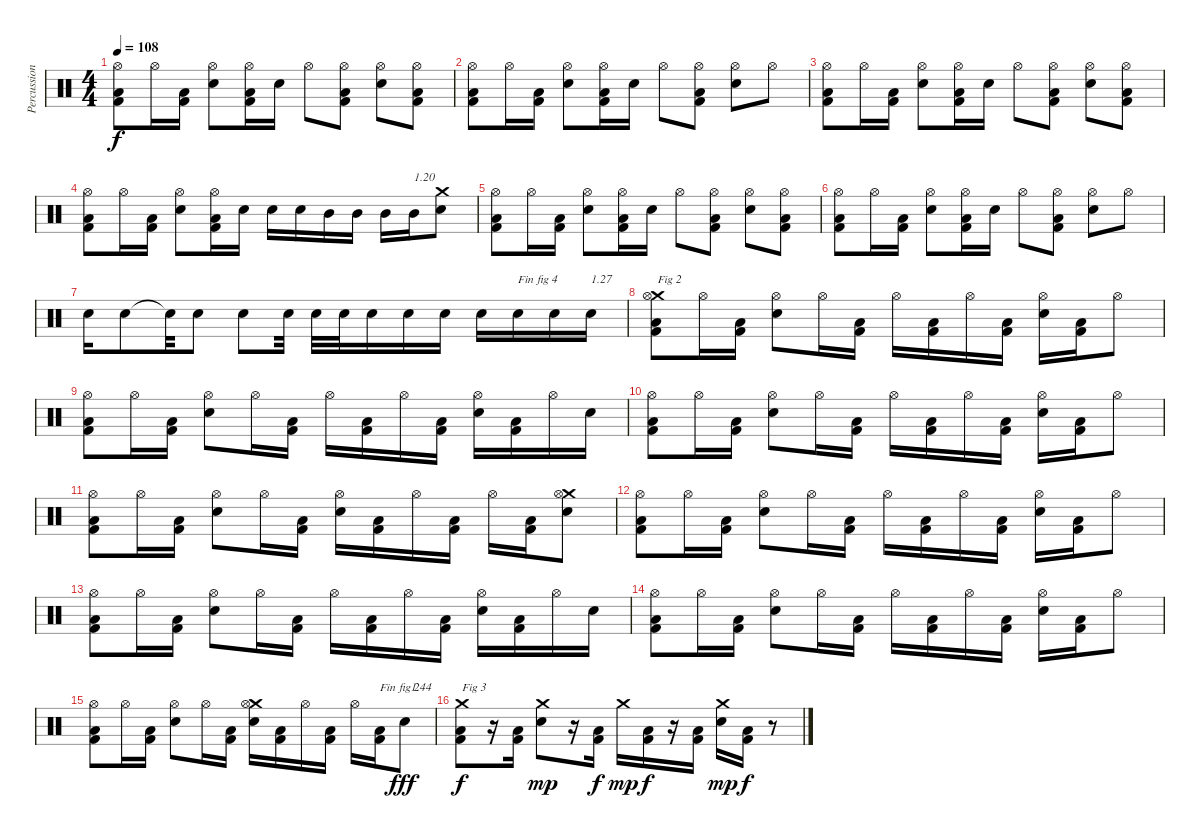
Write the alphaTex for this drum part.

\track ("Percussions" "Percussion") {instrument percussion}
\staff {score}
\articulation defaults
\ts (4 4)
\tempo 108
\clef neutral
\ks c
("Kick (hit) 2" "Low Floor Tom (hit)" "Hi-Hat (open)").8{dy f} "Hi-Hat (open)".16 ("Kick (hit) 2" "Low Floor Tom (hit)").16 ("Snare (hit) 2" "Hi-Hat (open)").8 ("Kick (hit) 2" "Low Floor Tom (hit)" "Hi-Hat (open)").16 "Snare (hit) 2".16 "Hi-Hat (open)".8 ("Kick (hit) 2" "Low Floor Tom (hit)" "Hi-Hat (open)").8 ("Snare (hit) 2" "Hi-Hat (open)").8 ("Kick (hit) 2" "Low Floor Tom (hit)" "Hi-Hat (open)").8 |
("Kick (hit) 2" "Low Floor Tom (hit)" "Hi-Hat (open)").8 "Hi-Hat (open)".16 ("Kick (hit) 2" "Low Floor Tom (hit)").16 ("Snare (hit) 2" "Hi-Hat (open)").8 ("Kick (hit) 2" "Low Floor Tom (hit)" "Hi-Hat (open)").16 "Snare (hit) 2".16 "Hi-Hat (open)".8 ("Kick (hit) 2" "Low Floor Tom (hit)" "Hi-Hat (open)").8 ("Snare (hit) 2" "Hi-Hat (open)").8 "Hi-Hat (open)".8 |
("Kick (hit) 2" "Low Floor Tom (hit)" "Hi-Hat (open)").8 "Hi-Hat (open)".16 ("Kick (hit) 2" "Low Floor Tom (hit)").16 ("Snare (hit) 2" "Hi-Hat (open)").8 ("Kick (hit) 2" "Low Floor Tom (hit)" "Hi-Hat (open)").16 "Snare (hit) 2".16 "Hi-Hat (open)".8 ("Kick (hit) 2" "Low Floor Tom (hit)" "Hi-Hat (open)").8 ("Snare (hit) 2" "Hi-Hat (open)").8 ("Kick (hit) 2" "Low Floor Tom (hit)" "Hi-Hat (open)").8 |
("Kick (hit) 2" "Low Floor Tom (hit)" "Hi-Hat (open)").8 "Hi-Hat (open)".16 ("Kick (hit) 2" "Low Floor Tom (hit)").16 ("Snare (hit) 2" "Hi-Hat (open)").8 ("Kick (hit) 2" "Low Floor Tom (hit)" "Hi-Hat (open)").16 "Snare (hit) 2".16 "Snare (hit) 2".16 "Snare (hit) 2".16 "Mid Tom (hit)".16 "Mid Tom (hit)".16 "Mid Tom (hit)".16 "Mid Tom (hit)".16{txt "1.20"} ("Snare (hit) 2" "Crash medium (hit)").8 |
("Kick (hit) 2" "Low Floor Tom (hit)" "Hi-Hat (open)").8 "Hi-Hat (open)".16 ("Kick (hit) 2" "Low Floor Tom (hit)").16 ("Snare (hit) 2" "Hi-Hat (open)").8 ("Kick (hit) 2" "Low Floor Tom (hit)" "Hi-Hat (open)").16 "Snare (hit) 2".16 "Hi-Hat (open)".8 ("Kick (hit) 2" "Low Floor Tom (hit)" "Hi-Hat (open)").8 ("Snare (hit) 2" "Hi-Hat (open)").8 ("Kick (hit) 2" "Low Floor Tom (hit)" "Hi-Hat (open)").8 |
("Kick (hit) 2" "Low Floor Tom (hit)" "Hi-Hat (open)").8 "Hi-Hat (open)".16 ("Kick (hit) 2" "Low Floor Tom (hit)").16 ("Snare (hit) 2" "Hi-Hat (open)").8 ("Kick (hit) 2" "Low Floor Tom (hit)" "Hi-Hat (open)").16 "Snare (hit) 2".16 "Hi-Hat (open)".8 ("Kick (hit) 2" "Low Floor Tom (hit)" "Hi-Hat (open)").8 ("Snare (hit) 2" "Hi-Hat (open)").8 "Hi-Hat (open)".8 |
"Snare (hit) 2".16 "Snare (hit) 2".8 "Snare (hit)"{t}.32 "Snare (hit) 2".8 "Snare (hit) 2".8 "Snare (hit) 2".32 "Snare (hit) 2".32 "Snare (hit) 2".32 "Snare (hit) 2".16 "Snare (hit) 2".16 "Snare (hit) 2".16 "Snare (hit) 2".16 "Snare (hit) 2".16{txt "Fin fig 4"} "Snare (hit) 2".16 "Snare (hit) 2".16{txt "1.27"} |
("Kick (hit) 2" "Low Floor Tom (hit)" "Crash medium (hit)" "Hi-Hat (open)").8{txt "Fig 2"} "Hi-Hat (open)".16 ("Kick (hit) 2" "Low Floor Tom (hit)").16 ("Snare (hit) 2" "Hi-Hat (open)").8 "Hi-Hat (open)".16 ("Kick (hit) 2" "Low Floor Tom (hit)").16 "Hi-Hat (open)".16 ("Kick (hit) 2" "Low Floor Tom (hit)").16 "Hi-Hat (open)".16 ("Kick (hit) 2" "Low Floor Tom (hit)").16 ("Snare (hit) 2" "Hi-Hat (open)").16 ("Kick (hit) 2" "Low Floor Tom (hit)").16 "Hi-Hat (open)".8 |
("Kick (hit) 2" "Low Floor Tom (hit)" "Hi-Hat (open)").8 "Hi-Hat (open)".16 ("Kick (hit) 2" "Low Floor Tom (hit)").16 ("Snare (hit) 2" "Hi-Hat (open)").8 "Hi-Hat (open)".16 ("Kick (hit) 2" "Low Floor Tom (hit)").16 "Hi-Hat (open)".16 ("Kick (hit) 2" "Low Floor Tom (hit)").16 "Hi-Hat (open)".16 ("Kick (hit) 2" "Low Floor Tom (hit)").16 ("Snare (hit) 2" "Hi-Hat (open)").16 ("Kick (hit) 2" "Low Floor Tom (hit)").16 "Hi-Hat (open)".16 "Snare (hit) 2".16 |
("Kick (hit) 2" "Low Floor Tom (hit)" "Hi-Hat (open)").8 "Hi-Hat (open)".16 ("Kick (hit) 2" "Low Floor Tom (hit)").16 ("Snare (hit) 2" "Hi-Hat (open)").8 "Hi-Hat (open)".16 ("Kick (hit) 2" "Low Floor Tom (hit)").16 "Hi-Hat (open)".16 ("Kick (hit) 2" "Low Floor Tom (hit)").16 "Hi-Hat (open)".16 ("Kick (hit) 2" "Low Floor Tom (hit)").16 ("Snare (hit) 2" "Hi-Hat (open)").16 ("Kick (hit) 2" "Low Floor Tom (hit)").16 "Hi-Hat (open)".8 |
("Kick (hit) 2" "Low Floor Tom (hit)" "Hi-Hat (open)").8 "Hi-Hat (open)".16 ("Kick (hit) 2" "Low Floor Tom (hit)").16 ("Snare (hit) 2" "Hi-Hat (open)").8 "Hi-Hat (open)".16 ("Kick (hit) 2" "Low Floor Tom (hit)").16 ("Snare (hit) 2" "Hi-Hat (open)").16 ("Kick (hit) 2" "Low Floor Tom (hit)").16 "Hi-Hat (open)".16 ("Kick (hit) 2" "Low Floor Tom (hit)").16 "Hi-Hat (open)".16 ("Kick (hit) 2" "Low Floor Tom (hit)").16 ("Snare (hit) 2" "Crash medium (hit)" "Hi-Hat (open)").8 |
("Kick (hit) 2" "Low Floor Tom (hit)" "Hi-Hat (open)").8 "Hi-Hat (open)".16 ("Kick (hit) 2" "Low Floor Tom (hit)").16 ("Snare (hit) 2" "Hi-Hat (open)").8 "Hi-Hat (open)".16 ("Kick (hit) 2" "Low Floor Tom (hit)").16 "Hi-Hat (open)".16 ("Kick (hit) 2" "Low Floor Tom (hit)").16 "Hi-Hat (open)".16 ("Kick (hit) 2" "Low Floor Tom (hit)").16 ("Snare (hit) 2" "Hi-Hat (open)").16 ("Kick (hit) 2" "Low Floor Tom (hit)").16 "Hi-Hat (open)".8 |
("Kick (hit) 2" "Low Floor Tom (hit)" "Hi-Hat (open)").8 "Hi-Hat (open)".16 ("Kick (hit) 2" "Low Floor Tom (hit)").16 ("Snare (hit) 2" "Hi-Hat (open)").8 "Hi-Hat (open)".16 ("Kick (hit) 2" "Low Floor Tom (hit)").16 "Hi-Hat (open)".16 ("Kick (hit) 2" "Low Floor Tom (hit)").16 "Hi-Hat (open)".16 ("Kick (hit) 2" "Low Floor Tom (hit)").16 ("Snare (hit) 2" "Hi-Hat (open)").16 ("Kick (hit) 2" "Low Floor Tom (hit)").16 "Hi-Hat (open)".16 "Snare (hit) 2".16 |
("Kick (hit) 2" "Low Floor Tom (hit)" "Hi-Hat (open)").8 "Hi-Hat (open)".16 ("Kick (hit) 2" "Low Floor Tom (hit)").16 ("Snare (hit) 2" "Hi-Hat (open)").8 "Hi-Hat (open)".16 ("Kick (hit) 2" "Low Floor Tom (hit)").16 "Hi-Hat (open)".16 ("Kick (hit) 2" "Low Floor Tom (hit)").16 "Hi-Hat (open)".16 ("Kick (hit) 2" "Low Floor Tom (hit)").16 ("Snare (hit) 2" "Hi-Hat (open)").16 ("Kick (hit) 2" "Low Floor Tom (hit)").16 "Hi-Hat (open)".8 |
("Kick (hit) 2" "Low Floor Tom (hit)" "Hi-Hat (open)").8 "Hi-Hat (open)".16 ("Kick (hit) 2" "Low Floor Tom (hit)").16 ("Snare (hit) 2" "Hi-Hat (open)").8 "Hi-Hat (open)".16 ("Kick (hit) 2" "Low Floor Tom (hit)").16 ("Snare (hit) 2" "Crash medium (hit)" "Hi-Hat (open)").16 ("Kick (hit) 2" "Low Floor Tom (hit)").16 "Hi-Hat (open)".16 ("Kick (hit) 2" "Low Floor Tom (hit)").16 "Hi-Hat (open)".16 ("Kick (hit) 2" "Low Floor Tom (hit)").16{txt "Fin fig 2"} "Snare (hit) 2".8{txt "  1.44" dy fff} |
("Kick (hit) 2" "Low Floor Tom (hit)" "Crash medium (hit)").8{txt "Fig 3" dy f} r.16 ("Kick (hit) 2" "Low Floor Tom (hit)").16 ("Snare (hit) 2" "Crash medium (hit)").8{dy mp} r.16 ("Kick (hit) 2" "Low Floor Tom (hit)").16{dy f} "Crash medium (hit)".16{dy mp} ("Kick (hit) 2" "Low Floor Tom (hit)").16{dy f} r.16 ("Kick (hit) 2" "Low Floor Tom (hit)").16 ("Snare (hit) 2" "Crash medium (hit)").16{dy mp} ("Kick (hit) 2" "Low Floor Tom (hit)").16{dy f} r.8
